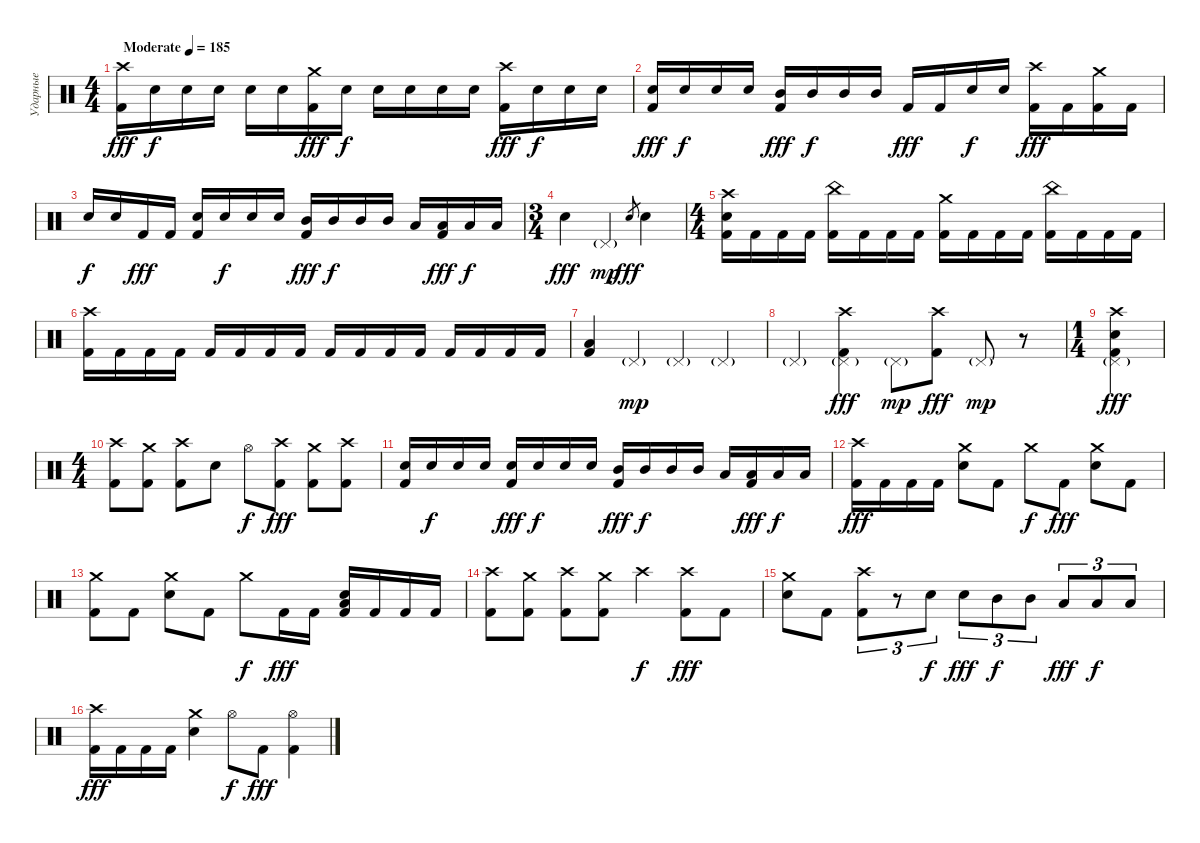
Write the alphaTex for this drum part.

\track ("Ударные" "Ударные") {instrument percussion}
\staff {score}
\articulation defaults
\ts (4 4)
\tempo (185 "Moderate")
\clef neutral
\ks c
("Crash high (hit)" "Kick (hit) 2").16{dy fff} "Electric Snare (hit)".16{dy f} "Electric Snare (hit)".16 "Electric Snare (hit)".16 "Electric Snare (hit)".16 "Electric Snare (hit)".16 ("Crash medium (hit)" "Kick (hit) 2").16{dy fff} "Electric Snare (hit)".16{dy f} "Electric Snare (hit)".16 "Electric Snare (hit)".16 "Electric Snare (hit)".16 "Electric Snare (hit)".16 ("Crash high (hit)" "Kick (hit) 2").16{dy fff} "Electric Snare (hit)".16{dy f} "Electric Snare (hit)".16 "Electric Snare (hit)".16 |
("Electric Snare (hit)" "Kick (hit) 2").16{dy fff} "Electric Snare (hit)".16{dy f} "Electric Snare (hit)".16 "Electric Snare (hit)".16 ("Mid Tom (hit)" "Kick (hit) 2").16{dy fff} "Mid Tom (hit)".16{dy f} "Mid Tom (hit)".16 "Mid Tom (hit)".16 "Kick (hit) 2".16{dy fff} "Kick (hit) 2".16 "Electric Snare (hit)".16{dy f} "Electric Snare (hit)".16 ("Crash high (hit)" "Kick (hit) 2").16{dy fff} "Kick (hit) 2".16 ("Crash medium (hit)" "Kick (hit) 2").16 "Kick (hit) 2".16 |
"Electric Snare (hit)".16{dy f} "Electric Snare (hit)".16 "Kick (hit) 2".16{dy fff} "Kick (hit) 2".16 ("Electric Snare (hit)" "Kick (hit) 2").16 "Electric Snare (hit)".16{dy f} "Electric Snare (hit)".16 "Electric Snare (hit)".16 ("Mid Tom (hit)" "Kick (hit) 2").16{dy fff} "Mid Tom (hit)".16{dy f} "Mid Tom (hit)".16 "Mid Tom (hit)".16 "Low Floor Tom (hit)".16 ("Low Floor Tom (hit)" "Kick (hit) 2").16{dy fff} "Low Floor Tom (hit)".16{dy f} "Low Floor Tom (hit)".16 |
\ts (3 4)
"Electric Snare (hit)".4{dy fff} "Pedal Hi-Hat (hit)"{g}.4{dy mp} "Electric Snare (hit)".8{gr dy fff} "Electric Snare (hit)".4 |
\ts (4 4)
("Crash high (hit)" "Electric Snare (hit)" "Kick (hit) 2").16 "Kick (hit) 2".16 "Kick (hit) 2".16 "Kick (hit) 2".16 ("China (hit)" "Kick (hit) 2").16 "Kick (hit) 2".16 "Kick (hit) 2".16 "Kick (hit) 2".16 ("Crash medium (hit)" "Kick (hit) 2").16 "Kick (hit) 2".16 "Kick (hit) 2".16 "Kick (hit) 2".16 ("China (hit)" "Kick (hit) 2").16 "Kick (hit) 2".16 "Kick (hit) 2".16 "Kick (hit) 2".16 |
("Crash high (hit)" "Kick (hit) 2").16 "Kick (hit) 2".16 "Kick (hit) 2".16 "Kick (hit) 2".16 "Kick (hit) 2".16 "Kick (hit) 2".16 "Kick (hit) 2".16 "Kick (hit) 2".16 "Kick (hit) 2".16 "Kick (hit) 2".16 "Kick (hit) 2".16 "Kick (hit) 2".16 "Kick (hit) 2".16 "Kick (hit) 2".16 "Kick (hit) 2".16 "Kick (hit) 2".16 |
("Low Floor Tom (hit)" "Kick (hit) 2").4 "Pedal Hi-Hat (hit)"{g}.4{dy mp} "Pedal Hi-Hat (hit)"{g}.4 "Pedal Hi-Hat (hit)"{g}.4 |
"Pedal Hi-Hat (hit)"{g}.4 ("Crash high (hit)" "Pedal Hi-Hat (hit)"{g} "Kick (hit) 2").4{dy fff} "Pedal Hi-Hat (hit)"{g}.8{dy mp} ("Crash high (hit)" "Kick (hit) 2").8{dy fff} "Pedal Hi-Hat (hit)"{g}.8{dy mp} r.8 |
\ts (1 4)
("Crash high (hit)" "Electric Snare (hit)" "Pedal Hi-Hat (hit)"{g} "Kick (hit) 2").4{dy fff} |
\ts (4 4)
("Crash high (hit)" "Kick (hit) 2").8 ("Crash medium (hit)" "Kick (hit) 2").8 ("Crash high (hit)" "Kick (hit) 2").8 "Electric Snare (hit)".8 "Hi-Hat (open)".8{dy f} ("Crash high (hit)" "Kick (hit) 2").8{dy fff} ("Crash medium (hit)" "Kick (hit) 2").8 ("Crash high (hit)" "Kick (hit) 2").8 |
("Electric Snare (hit)" "Kick (hit) 2").16 "Electric Snare (hit)".16{dy f} "Electric Snare (hit)".16 "Electric Snare (hit)".16 ("Electric Snare (hit)" "Kick (hit) 2").16{dy fff} "Electric Snare (hit)".16{dy f} "Electric Snare (hit)".16 "Electric Snare (hit)".16 ("Mid Tom (hit)" "Kick (hit) 2").16{dy fff} "Mid Tom (hit)".16{dy f} "Mid Tom (hit)".16 "Mid Tom (hit)".16 "Low Floor Tom (hit)".16 ("Low Floor Tom (hit)" "Kick (hit) 2").16{dy fff} "Low Floor Tom (hit)".16{dy f} "Low Floor Tom (hit)".16 |
("Crash high (hit)" "Kick (hit) 2").16{dy fff} "Kick (hit) 2".16 "Kick (hit) 2".16 "Kick (hit) 2".16 ("Crash medium (hit)" "Electric Snare (hit)").8 "Kick (hit) 2".8 "Crash medium (hit)".8{dy f} "Kick (hit) 2".8{dy fff} ("Crash medium (hit)" "Electric Snare (hit)").8 "Kick (hit) 2".8 |
("Crash medium (hit)" "Kick (hit) 2").8 "Kick (hit) 2".8 ("Crash medium (hit)" "Electric Snare (hit)").8 "Kick (hit) 2".8 "Crash medium (hit)".8{dy f} "Kick (hit) 2".16{dy fff} "Kick (hit) 2".16 ("Low Floor Tom (hit)" "Electric Snare (hit)" "Kick (hit) 2").16 "Kick (hit) 2".16 "Kick (hit) 2".16 "Kick (hit) 2".16 |
("Crash high (hit)" "Kick (hit) 2").8 ("Crash medium (hit)" "Kick (hit) 2").8 ("Crash high (hit)" "Kick (hit) 2").8 ("Crash medium (hit)" "Kick (hit) 2").8 "Crash high (hit)".4{dy f} ("Crash high (hit)" "Kick (hit) 2").8{dy fff} "Kick (hit) 2".8 |
("Crash medium (hit)" "Electric Snare (hit)").8 "Kick (hit) 2".8 ("Crash high (hit)" "Kick (hit) 2").8{tu (3 2)} r.8{tu (3 2)} "Electric Snare (hit)".8{tu (3 2) dy f} "Electric Snare (hit)".8{tu (3 2) dy fff} "Mid Tom (hit)".8{tu (3 2) dy f} "Mid Tom (hit)".8{tu (3 2)} "Low Tom (hit)".8{tu (3 2) dy fff} "Low Tom (hit)".8{tu (3 2) dy f} "Low Floor Tom (hit)".8{tu (3 2)} |
("Crash high (hit)" "Kick (hit) 2").16{dy fff} "Kick (hit) 2".16 "Kick (hit) 2".16 "Kick (hit) 2".16 ("Crash medium (hit)" "Electric Snare (hit)").4 "Hi-Hat (open)".8{dy f} "Kick (hit) 2".8{dy fff} ("Hi-Hat (open)" "Kick (hit) 2").4
